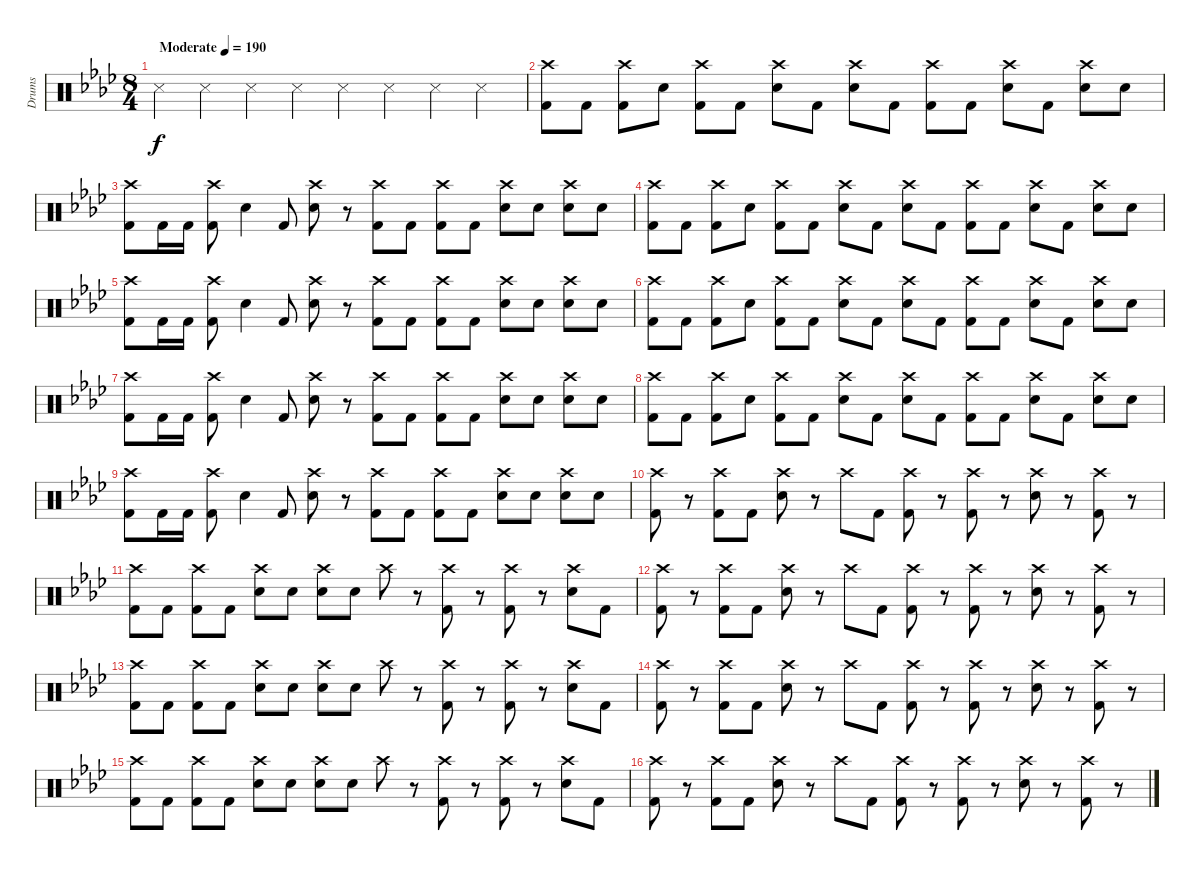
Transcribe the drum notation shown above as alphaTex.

\track ("Drums" "Drums") {instrument percussion}
\staff {score}
\articulation defaults
\ts (8 4)
\tempo (190 "Moderate")
\clef neutral
\ks ab "Metronome (hit)".4{dy f} "Metronome (hit)".4 "Metronome (hit)".4 "Metronome (hit)".4 "Metronome (hit)".4 "Metronome (hit)".4 "Metronome (hit)".4 "Metronome (hit)".4
|
("Crash high (hit)" "Kick (hit) 2").8 "Kick (hit) 2".8 ("Crash high (hit)" "Kick (hit) 2").8 "Snare (hit) 2".8 ("Crash high (hit)" "Kick (hit) 2").8 "Kick (hit) 2".8 ("Crash high (hit)" "Snare (hit) 2").8 "Kick (hit) 2".8 ("Crash high (hit)" "Snare (hit) 2").8 "Kick (hit) 2".8 ("Crash high (hit)" "Kick (hit) 2").8 "Kick (hit) 2".8 ("Crash high (hit)" "Snare (hit) 2").8 "Kick (hit) 2".8 ("Crash high (hit)" "Snare (hit) 2").8 "Snare (hit) 2".8 |
("Crash high (hit)" "Kick (hit) 2").8 "Kick (hit) 2".16 "Kick (hit) 2".16 ("Crash high (hit)" "Kick (hit) 2").8 "Snare (hit) 2".4 "Kick (hit) 2".8 ("Crash high (hit)" "Snare (hit) 2").8 r.8 ("Crash high (hit)" "Kick (hit) 2").8 "Kick (hit) 2".8 ("Crash high (hit)" "Kick (hit) 2").8 "Kick (hit) 2".8 ("Crash high (hit)" "Snare (hit) 2").8 "Snare (hit) 2".8 ("Crash high (hit)" "Snare (hit) 2").8 "Snare (hit) 2".8 |
("Crash high (hit)" "Kick (hit) 2").8 "Kick (hit) 2".8 ("Crash high (hit)" "Kick (hit) 2").8 "Snare (hit) 2".8 ("Crash high (hit)" "Kick (hit) 2").8 "Kick (hit) 2".8 ("Crash high (hit)" "Snare (hit) 2").8 "Kick (hit) 2".8 ("Crash high (hit)" "Snare (hit) 2").8 "Kick (hit) 2".8 ("Crash high (hit)" "Kick (hit) 2").8 "Kick (hit) 2".8 ("Crash high (hit)" "Snare (hit) 2").8 "Kick (hit) 2".8 ("Crash high (hit)" "Snare (hit) 2").8 "Snare (hit) 2".8 |
("Crash high (hit)" "Kick (hit) 2").8 "Kick (hit) 2".16 "Kick (hit) 2".16 ("Crash high (hit)" "Kick (hit) 2").8 "Snare (hit) 2".4 "Kick (hit) 2".8 ("Crash high (hit)" "Snare (hit) 2").8 r.8 ("Crash high (hit)" "Kick (hit) 2").8 "Kick (hit) 2".8 ("Crash high (hit)" "Kick (hit) 2").8 "Kick (hit) 2".8 ("Crash high (hit)" "Snare (hit) 2").8 "Snare (hit) 2".8 ("Crash high (hit)" "Snare (hit) 2").8 "Snare (hit) 2".8 |
("Crash high (hit)" "Kick (hit) 2").8 "Kick (hit) 2".8 ("Crash high (hit)" "Kick (hit) 2").8 "Snare (hit) 2".8 ("Crash high (hit)" "Kick (hit) 2").8 "Kick (hit) 2".8 ("Crash high (hit)" "Snare (hit) 2").8 "Kick (hit) 2".8 ("Crash high (hit)" "Snare (hit) 2").8 "Kick (hit) 2".8 ("Crash high (hit)" "Kick (hit) 2").8 "Kick (hit) 2".8 ("Crash high (hit)" "Snare (hit) 2").8 "Kick (hit) 2".8 ("Crash high (hit)" "Snare (hit) 2").8 "Snare (hit) 2".8 |
("Crash high (hit)" "Kick (hit) 2").8 "Kick (hit) 2".16 "Kick (hit) 2".16 ("Crash high (hit)" "Kick (hit) 2").8 "Snare (hit) 2".4 "Kick (hit) 2".8 ("Crash high (hit)" "Snare (hit) 2").8 r.8 ("Crash high (hit)" "Kick (hit) 2").8 "Kick (hit) 2".8 ("Crash high (hit)" "Kick (hit) 2").8 "Kick (hit) 2".8 ("Crash high (hit)" "Snare (hit) 2").8 "Snare (hit) 2".8 ("Crash high (hit)" "Snare (hit) 2").8 "Snare (hit) 2".8 |
("Crash high (hit)" "Kick (hit) 2").8 "Kick (hit) 2".8 ("Crash high (hit)" "Kick (hit) 2").8 "Snare (hit) 2".8 ("Crash high (hit)" "Kick (hit) 2").8 "Kick (hit) 2".8 ("Crash high (hit)" "Snare (hit) 2").8 "Kick (hit) 2".8 ("Crash high (hit)" "Snare (hit) 2").8 "Kick (hit) 2".8 ("Crash high (hit)" "Kick (hit) 2").8 "Kick (hit) 2".8 ("Crash high (hit)" "Snare (hit) 2").8 "Kick (hit) 2".8 ("Crash high (hit)" "Snare (hit) 2").8 "Snare (hit) 2".8 |
("Crash high (hit)" "Kick (hit) 2").8 "Kick (hit) 2".16 "Kick (hit) 2".16 ("Crash high (hit)" "Kick (hit) 2").8 "Snare (hit) 2".4 "Kick (hit) 2".8 ("Crash high (hit)" "Snare (hit) 2").8 r.8 ("Crash high (hit)" "Kick (hit) 2").8 "Kick (hit) 2".8 ("Crash high (hit)" "Kick (hit) 2").8 "Kick (hit) 2".8 ("Crash high (hit)" "Snare (hit) 2").8 "Snare (hit) 2".8 ("Crash high (hit)" "Snare (hit) 2").8 "Snare (hit) 2".8 |
("Crash high (hit)" "Kick (hit) 2").8 r.8 ("Crash high (hit)" "Kick (hit) 2").8 "Kick (hit) 2".8 ("Crash high (hit)" "Snare (hit) 2").8 r.8 "Crash high (hit)".8 "Kick (hit) 2".8 ("Crash high (hit)" "Kick (hit) 2").8 r.8 ("Crash high (hit)" "Kick (hit) 2").8 r.8 ("Crash high (hit)" "Snare (hit) 2").8 r.8 ("Crash high (hit)" "Kick (hit) 2").8 r.8 |
("Crash high (hit)" "Kick (hit) 2").8 "Kick (hit) 2".8 ("Crash high (hit)" "Kick (hit) 2").8 "Kick (hit) 2".8 ("Crash high (hit)" "Snare (hit) 2").8 "Snare (hit) 2".8 ("Crash high (hit)" "Snare (hit) 2").8 "Snare (hit) 2".8 "Crash high (hit)".8 r.8 ("Crash high (hit)" "Kick (hit) 2").8 r.8 ("Crash high (hit)" "Kick (hit) 2").8 r.8 ("Crash high (hit)" "Snare (hit) 2").8 "Kick (hit) 2".8 |
("Crash high (hit)" "Kick (hit) 2").8 r.8 ("Crash high (hit)" "Kick (hit) 2").8 "Kick (hit) 2".8 ("Crash high (hit)" "Snare (hit) 2").8 r.8 "Crash high (hit)".8 "Kick (hit) 2".8 ("Crash high (hit)" "Kick (hit) 2").8 r.8 ("Crash high (hit)" "Kick (hit) 2").8 r.8 ("Crash high (hit)" "Snare (hit) 2").8 r.8 ("Crash high (hit)" "Kick (hit) 2").8 r.8 |
("Crash high (hit)" "Kick (hit) 2").8 "Kick (hit) 2".8 ("Crash high (hit)" "Kick (hit) 2").8 "Kick (hit) 2".8 ("Crash high (hit)" "Snare (hit) 2").8 "Snare (hit) 2".8 ("Crash high (hit)" "Snare (hit) 2").8 "Snare (hit) 2".8 "Crash high (hit)".8 r.8 ("Crash high (hit)" "Kick (hit) 2").8 r.8 ("Crash high (hit)" "Kick (hit) 2").8 r.8 ("Crash high (hit)" "Snare (hit) 2").8 "Kick (hit) 2".8 |
("Crash high (hit)" "Kick (hit) 2").8 r.8 ("Crash high (hit)" "Kick (hit) 2").8 "Kick (hit) 2".8 ("Crash high (hit)" "Snare (hit) 2").8 r.8 "Crash high (hit)".8 "Kick (hit) 2".8 ("Crash high (hit)" "Kick (hit) 2").8 r.8 ("Crash high (hit)" "Kick (hit) 2").8 r.8 ("Crash high (hit)" "Snare (hit) 2").8 r.8 ("Crash high (hit)" "Kick (hit) 2").8 r.8 |
("Crash high (hit)" "Kick (hit) 2").8 "Kick (hit) 2".8 ("Crash high (hit)" "Kick (hit) 2").8 "Kick (hit) 2".8 ("Crash high (hit)" "Snare (hit) 2").8 "Snare (hit) 2".8 ("Crash high (hit)" "Snare (hit) 2").8 "Snare (hit) 2".8 "Crash high (hit)".8 r.8 ("Crash high (hit)" "Kick (hit) 2").8 r.8 ("Crash high (hit)" "Kick (hit) 2").8 r.8 ("Crash high (hit)" "Snare (hit) 2").8 "Kick (hit) 2".8 |
("Crash high (hit)" "Kick (hit) 2").8 r.8 ("Crash high (hit)" "Kick (hit) 2").8 "Kick (hit) 2".8 ("Crash high (hit)" "Snare (hit) 2").8 r.8 "Crash high (hit)".8 "Kick (hit) 2".8 ("Crash high (hit)" "Kick (hit) 2").8 r.8 ("Crash high (hit)" "Kick (hit) 2").8 r.8 ("Crash high (hit)" "Snare (hit) 2").8 r.8 ("Crash high (hit)" "Kick (hit) 2").8 r.8
